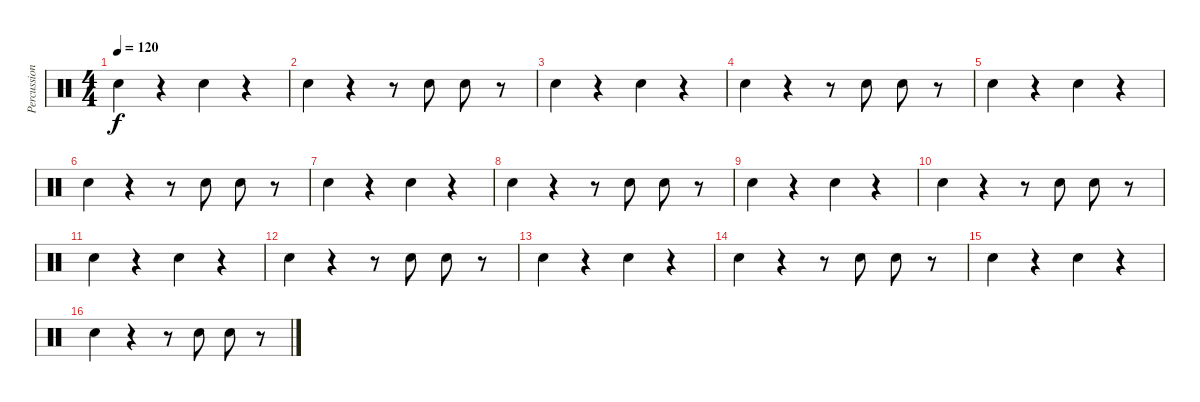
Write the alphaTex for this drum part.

\track ("Percussions" "Percussion") {instrument percussion}
\staff {score}
\articulation defaults
\ts (4 4)
\tempo 120
\clef neutral
\ks c "Hand Clap (hit)".4{dy f}
r.4 "Hand Clap (hit)".4 r.4 |
"Hand Clap (hit)".4 r.4 r.8 "Hand Clap (hit)".8 "Hand Clap (hit)".8 r.8 |
"Hand Clap (hit)".4 r.4 "Hand Clap (hit)".4 r.4 |
"Hand Clap (hit)".4 r.4 r.8 "Hand Clap (hit)".8 "Hand Clap (hit)".8 r.8 |
"Hand Clap (hit)".4 r.4 "Hand Clap (hit)".4 r.4 |
"Hand Clap (hit)".4 r.4 r.8 "Hand Clap (hit)".8 "Hand Clap (hit)".8 r.8 |
"Hand Clap (hit)".4 r.4 "Hand Clap (hit)".4 r.4 |
"Hand Clap (hit)".4 r.4 r.8 "Hand Clap (hit)".8 "Hand Clap (hit)".8 r.8 |
"Hand Clap (hit)".4 r.4 "Hand Clap (hit)".4 r.4 |
"Hand Clap (hit)".4 r.4 r.8 "Hand Clap (hit)".8 "Hand Clap (hit)".8 r.8 |
"Hand Clap (hit)".4 r.4 "Hand Clap (hit)".4 r.4 |
"Hand Clap (hit)".4 r.4 r.8 "Hand Clap (hit)".8 "Hand Clap (hit)".8 r.8 |
"Hand Clap (hit)".4 r.4 "Hand Clap (hit)".4 r.4 |
"Hand Clap (hit)".4 r.4 r.8 "Hand Clap (hit)".8 "Hand Clap (hit)".8 r.8 |
"Hand Clap (hit)".4 r.4 "Hand Clap (hit)".4 r.4 |
"Hand Clap (hit)".4 r.4 r.8 "Hand Clap (hit)".8 "Hand Clap (hit)".8 r.8
